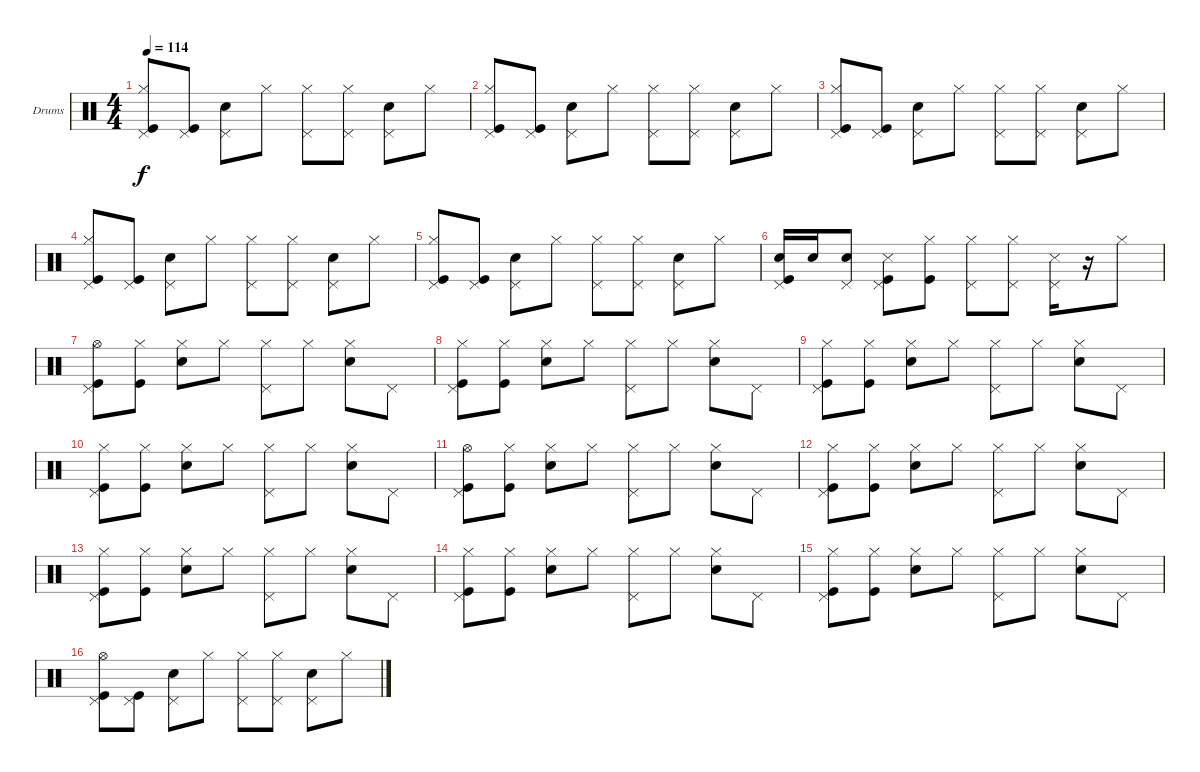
\bracketExtendMode groupsimilarinstruments
\firstSystemTrackNameOrientation horizontal
\otherSystemsTrackNameOrientation horizontal
\track ("Drumkit" "Drums") {instrument percussion}
\staff {score}
\articulation defaults
\ts (4 4)
\tempo 114
\clef neutral
\ks c
("Kick (hit)" "Hi-Hat (closed)" "Pedal Hi-Hat (hit)").8{dy f} ("Kick (hit)" "Pedal Hi-Hat (hit)").8 ("Snare (hit) 2" "Pedal Hi-Hat (hit)").8 "Hi-Hat (closed)".8 ("Hi-Hat (closed)" "Pedal Hi-Hat (hit)").8 ("Hi-Hat (closed)" "Pedal Hi-Hat (hit)").8 ("Snare (hit) 2" "Pedal Hi-Hat (hit)").8 "Hi-Hat (closed)".8 |
("Kick (hit)" "Hi-Hat (closed)" "Pedal Hi-Hat (hit)").8 ("Kick (hit)" "Pedal Hi-Hat (hit)").8 ("Snare (hit) 2" "Pedal Hi-Hat (hit)").8 "Hi-Hat (closed)".8 ("Hi-Hat (closed)" "Pedal Hi-Hat (hit)").8 ("Hi-Hat (closed)" "Pedal Hi-Hat (hit)").8 ("Snare (hit) 2" "Pedal Hi-Hat (hit)").8 "Hi-Hat (closed)".8 |
("Kick (hit)" "Hi-Hat (closed)" "Pedal Hi-Hat (hit)").8 ("Kick (hit)" "Pedal Hi-Hat (hit)").8 ("Snare (hit) 2" "Pedal Hi-Hat (hit)").8 "Hi-Hat (closed)".8 ("Hi-Hat (closed)" "Pedal Hi-Hat (hit)").8 ("Hi-Hat (closed)" "Pedal Hi-Hat (hit)").8 ("Snare (hit) 2" "Pedal Hi-Hat (hit)").8 "Hi-Hat (closed)".8 |
("Kick (hit)" "Hi-Hat (closed)" "Pedal Hi-Hat (hit)").8 ("Kick (hit)" "Pedal Hi-Hat (hit)").8 ("Snare (hit) 2" "Pedal Hi-Hat (hit)").8 "Hi-Hat (closed)".8 ("Hi-Hat (closed)" "Pedal Hi-Hat (hit)").8 ("Hi-Hat (closed)" "Pedal Hi-Hat (hit)").8 ("Snare (hit) 2" "Pedal Hi-Hat (hit)").8 "Hi-Hat (closed)".8 |
("Kick (hit)" "Hi-Hat (closed)" "Pedal Hi-Hat (hit)").8 ("Kick (hit)" "Pedal Hi-Hat (hit)").8 ("Snare (hit) 2" "Pedal Hi-Hat (hit)").8 "Hi-Hat (closed)".8 ("Hi-Hat (closed)" "Pedal Hi-Hat (hit)").8 ("Hi-Hat (closed)" "Pedal Hi-Hat (hit)").8 ("Snare (hit) 2" "Pedal Hi-Hat (hit)").8 "Hi-Hat (closed)".8 |
("Kick (hit)" "Snare (hit) 2" "Pedal Hi-Hat (hit)").16 "Snare (hit) 2".16 ("Snare (hit) 2" "Pedal Hi-Hat (hit)").8 ("Snare (side stick) 3" "Kick (hit)" "Pedal Hi-Hat (hit)").8 ("Kick (hit)" "Hi-Hat (closed)").8 ("Hi-Hat (closed)" "Pedal Hi-Hat (hit)").8 ("Hi-Hat (closed)" "Pedal Hi-Hat (hit)").8 ("Snare (side stick) 3" "Pedal Hi-Hat (hit)").16 r.16 "Hi-Hat (closed)".8 |
("Kick (hit)" "Hi-Hat (open)" "Pedal Hi-Hat (hit)").8 ("Kick (hit)" "Hi-Hat (closed)").8 ("Snare (hit) 2" "Hi-Hat (closed)").8 "Hi-Hat (closed)".8 ("Hi-Hat (closed)" "Pedal Hi-Hat (hit)").8 "Hi-Hat (closed)".8 ("Snare (hit) 2" "Hi-Hat (closed)").8 "Pedal Hi-Hat (hit)".8 |
("Kick (hit)" "Hi-Hat (closed)" "Pedal Hi-Hat (hit)").8 ("Kick (hit)" "Hi-Hat (closed)").8 ("Snare (hit) 2" "Hi-Hat (closed)").8 "Hi-Hat (closed)".8 ("Hi-Hat (closed)" "Pedal Hi-Hat (hit)").8 "Hi-Hat (closed)".8 ("Snare (hit) 2" "Hi-Hat (closed)").8 "Pedal Hi-Hat (hit)".8 |
("Kick (hit)" "Hi-Hat (closed)" "Pedal Hi-Hat (hit)").8 ("Kick (hit)" "Hi-Hat (closed)").8 ("Snare (hit) 2" "Hi-Hat (closed)").8 "Hi-Hat (closed)".8 ("Hi-Hat (closed)" "Pedal Hi-Hat (hit)").8 "Hi-Hat (closed)".8 ("Snare (hit) 2" "Hi-Hat (closed)").8 "Pedal Hi-Hat (hit)".8 |
("Kick (hit)" "Hi-Hat (closed)" "Pedal Hi-Hat (hit)").8 ("Kick (hit)" "Hi-Hat (closed)").8 ("Snare (hit) 2" "Hi-Hat (closed)").8 "Hi-Hat (closed)".8 ("Hi-Hat (closed)" "Pedal Hi-Hat (hit)").8 "Hi-Hat (closed)".8 ("Snare (hit) 2" "Hi-Hat (closed)").8 "Pedal Hi-Hat (hit)".8 |
("Kick (hit)" "Hi-Hat (open)" "Pedal Hi-Hat (hit)").8 ("Kick (hit)" "Hi-Hat (closed)").8 ("Snare (hit) 2" "Hi-Hat (closed)").8 "Hi-Hat (closed)".8 ("Hi-Hat (closed)" "Pedal Hi-Hat (hit)").8 "Hi-Hat (closed)".8 ("Snare (hit) 2" "Hi-Hat (closed)").8 "Pedal Hi-Hat (hit)".8 |
("Kick (hit)" "Hi-Hat (closed)" "Pedal Hi-Hat (hit)").8 ("Kick (hit)" "Hi-Hat (closed)").8 ("Snare (hit) 2" "Hi-Hat (closed)").8 "Hi-Hat (closed)".8 ("Hi-Hat (closed)" "Pedal Hi-Hat (hit)").8 "Hi-Hat (closed)".8 ("Snare (hit) 2" "Hi-Hat (closed)").8 "Pedal Hi-Hat (hit)".8 |
("Kick (hit)" "Hi-Hat (closed)" "Pedal Hi-Hat (hit)").8 ("Kick (hit)" "Hi-Hat (closed)").8 ("Snare (hit) 2" "Hi-Hat (closed)").8 "Hi-Hat (closed)".8 ("Hi-Hat (closed)" "Pedal Hi-Hat (hit)").8 "Hi-Hat (closed)".8 ("Snare (hit) 2" "Hi-Hat (closed)").8 "Pedal Hi-Hat (hit)".8 |
("Kick (hit)" "Hi-Hat (closed)" "Pedal Hi-Hat (hit)").8 ("Kick (hit)" "Hi-Hat (closed)").8 ("Snare (hit) 2" "Hi-Hat (closed)").8 "Hi-Hat (closed)".8 ("Hi-Hat (closed)" "Pedal Hi-Hat (hit)").8 "Hi-Hat (closed)".8 ("Snare (hit) 2" "Hi-Hat (closed)").8 "Pedal Hi-Hat (hit)".8 |
("Kick (hit)" "Hi-Hat (closed)" "Pedal Hi-Hat (hit)").8 ("Kick (hit)" "Hi-Hat (closed)").8 ("Snare (hit) 2" "Hi-Hat (closed)").8 "Hi-Hat (closed)".8 ("Hi-Hat (closed)" "Pedal Hi-Hat (hit)").8 "Hi-Hat (closed)".8 ("Snare (hit) 2" "Hi-Hat (closed)").8 "Pedal Hi-Hat (hit)".8 |
("Kick (hit)" "Hi-Hat (open)" "Pedal Hi-Hat (hit)").8 ("Kick (hit)" "Pedal Hi-Hat (hit)").8 ("Snare (hit) 2" "Pedal Hi-Hat (hit)").8 "Hi-Hat (closed)".8 ("Hi-Hat (closed)" "Pedal Hi-Hat (hit)").8 ("Hi-Hat (closed)" "Pedal Hi-Hat (hit)").8 ("Snare (hit) 2" "Pedal Hi-Hat (hit)").8 "Hi-Hat (closed)".8
